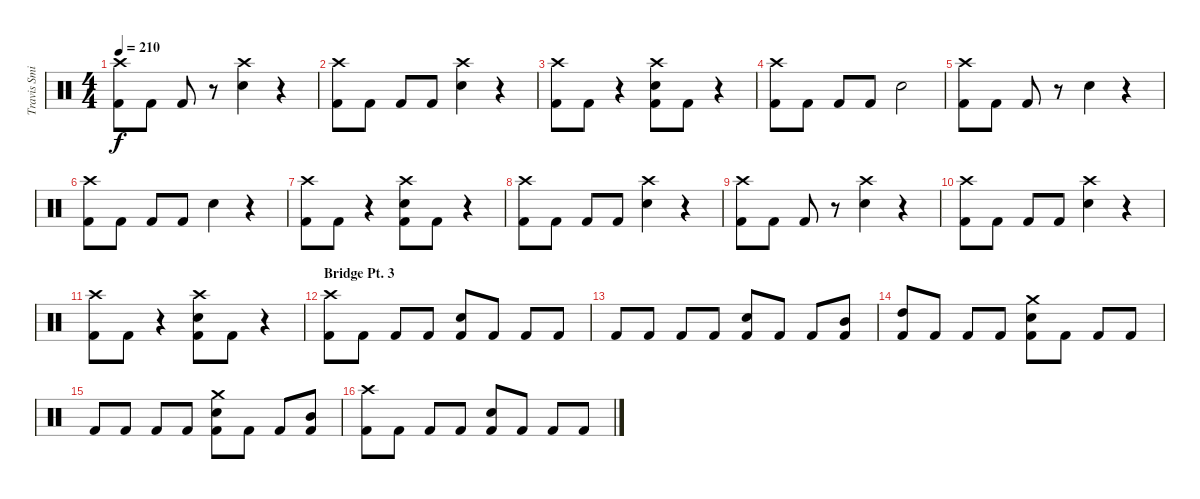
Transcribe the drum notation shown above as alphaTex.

\track ("Travis Smith" "Travis Smi") {instrument percussion}
\staff {score}
\articulation defaults
\ts (4 4)
\tempo 210
\clef neutral
\ks c
("Crash high (hit)" "Kick (hit) 2").8{dy f} "Kick (hit) 2".8 "Kick (hit) 2".8 r.8 ("Crash high (hit)" "Snare (hit) 2").4 r.4 |
("Crash high (hit)" "Kick (hit) 2").8 "Kick (hit) 2".8 "Kick (hit) 2".8 "Kick (hit) 2".8 ("Crash high (hit)" "Snare (hit) 2").4 r.4 |
("Crash high (hit)" "Kick (hit) 2").8 "Kick (hit) 2".8 r.4 ("Crash high (hit)" "Snare (hit) 2" "Kick (hit) 2").8 "Kick (hit) 2".8 r.4 |
("Crash high (hit)" "Kick (hit) 2").8 "Kick (hit) 2".8 "Kick (hit) 2".8 "Kick (hit) 2".8 "Snare (hit) 2".2 |
("Crash high (hit)" "Kick (hit) 2").8 "Kick (hit) 2".8 "Kick (hit) 2".8 r.8 "Snare (hit) 2".4 r.4 |
("Crash high (hit)" "Kick (hit) 2").8 "Kick (hit) 2".8 "Kick (hit) 2".8 "Kick (hit) 2".8 "Snare (hit) 2".4 r.4 |
("Crash high (hit)" "Kick (hit) 2").8 "Kick (hit) 2".8 r.4 ("Crash high (hit)" "Snare (hit) 2" "Kick (hit) 2").8 "Kick (hit) 2".8 r.4 |
("Crash high (hit)" "Kick (hit) 2").8 "Kick (hit) 2".8 "Kick (hit) 2".8 "Kick (hit) 2".8 ("Crash high (hit)" "Snare (hit) 2").4 r.4 |
("Crash high (hit)" "Kick (hit) 2").8 "Kick (hit) 2".8 "Kick (hit) 2".8 r.8 ("Crash high (hit)" "Snare (hit) 2").4 r.4 |
("Crash high (hit)" "Kick (hit) 2").8 "Kick (hit) 2".8 "Kick (hit) 2".8 "Kick (hit) 2".8 ("Crash high (hit)" "Snare (hit) 2").4 r.4 |
("Crash high (hit)" "Kick (hit) 2").8 "Kick (hit) 2".8 r.4 ("Crash high (hit)" "Snare (hit) 2" "Kick (hit) 2").8 "Kick (hit) 2".8 r.4 |
\section ("" "Bridge Pt. 3")
("Crash high (hit)" "Kick (hit) 2").8 "Kick (hit) 2".8 "Kick (hit) 2".8 "Kick (hit) 2".8 ("Snare (hit) 2" "Kick (hit) 2").8 "Kick (hit) 2".8 "Kick (hit) 2".8 "Kick (hit) 2".8 |
"Kick (hit) 2".8 "Kick (hit) 2".8 "Kick (hit) 2".8 "Kick (hit) 2".8 ("Snare (hit) 2" "Kick (hit) 2").8 "Kick (hit) 2".8 "Kick (hit) 2".8 ("Mid Tom (hit)" "Kick (hit) 2").8 |
("High Tom (hit)" "Kick (hit) 2").8 "Kick (hit) 2".8 "Kick (hit) 2".8 "Kick (hit) 2".8 ("Crash medium (hit)" "Snare (hit) 2" "Kick (hit) 2").8 "Kick (hit) 2".8 "Kick (hit) 2".8 "Kick (hit) 2".8 |
"Kick (hit) 2".8 "Kick (hit) 2".8 "Kick (hit) 2".8 "Kick (hit) 2".8 ("Crash medium (hit)" "Snare (hit) 2" "Kick (hit) 2").8 "Kick (hit) 2".8 "Kick (hit) 2".8 ("Mid Tom (hit)" "Kick (hit) 2").8 |
("Crash high (hit)" "Kick (hit) 2").8 "Kick (hit) 2".8 "Kick (hit) 2".8 "Kick (hit) 2".8 ("Snare (hit) 2" "Kick (hit) 2").8 "Kick (hit) 2".8 "Kick (hit) 2".8 "Kick (hit) 2".8
